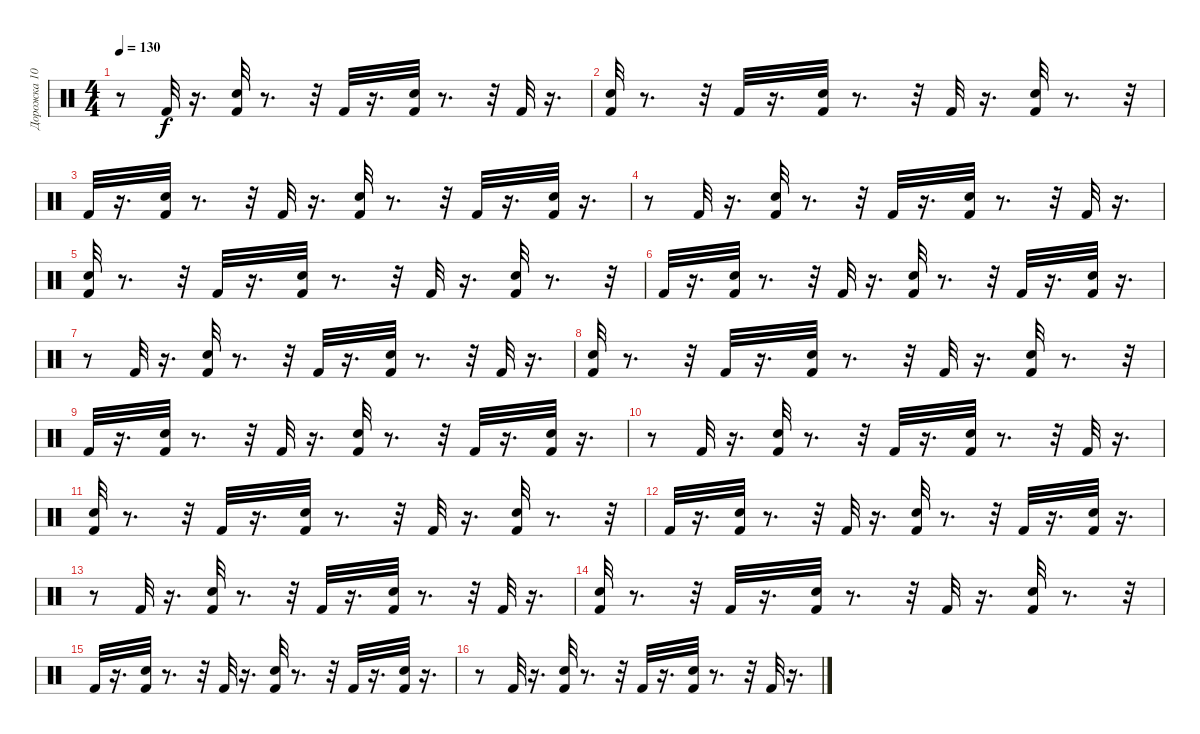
\track ("Дорожка 10" "Дорожка 10") {instrument percussion}
\staff {score}
\articulation defaults
\ts (4 4)
\tempo 130
\clef neutral
\ks c
r.8{dy f} "Kick (hit) 2".32 r.16{d} ("Snare (hit)" "Kick (hit) 2").32 r.8{d} r.32 "Kick (hit) 2".32 r.16{d} ("Snare (hit)" "Kick (hit) 2").32 r.8{d} r.32 "Kick (hit) 2".32 r.16{d} |
("Snare (hit)" "Kick (hit) 2").32 r.8{d} r.32 "Kick (hit) 2".32 r.16{d} ("Snare (hit)" "Kick (hit) 2").32 r.8{d} r.32 "Kick (hit) 2".32 r.16{d} ("Snare (hit)" "Kick (hit) 2").32 r.8{d} r.32 |
"Kick (hit) 2".32 r.16{d} ("Snare (hit)" "Kick (hit) 2").32 r.8{d} r.32 "Kick (hit) 2".32 r.16{d} ("Snare (hit)" "Kick (hit) 2").32 r.8{d} r.32 "Kick (hit) 2".32 r.16{d} ("Snare (hit)" "Kick (hit) 2").32 r.16{d} |
r.8 "Kick (hit) 2".32 r.16{d} ("Snare (hit)" "Kick (hit) 2").32 r.8{d} r.32 "Kick (hit) 2".32 r.16{d} ("Snare (hit)" "Kick (hit) 2").32 r.8{d} r.32 "Kick (hit) 2".32 r.16{d} |
("Snare (hit)" "Kick (hit) 2").32 r.8{d} r.32 "Kick (hit) 2".32 r.16{d} ("Snare (hit)" "Kick (hit) 2").32 r.8{d} r.32 "Kick (hit) 2".32 r.16{d} ("Snare (hit)" "Kick (hit) 2").32 r.8{d} r.32 |
"Kick (hit) 2".32 r.16{d} ("Snare (hit)" "Kick (hit) 2").32 r.8{d} r.32 "Kick (hit) 2".32 r.16{d} ("Snare (hit)" "Kick (hit) 2").32 r.8{d} r.32 "Kick (hit) 2".32 r.16{d} ("Snare (hit)" "Kick (hit) 2").32 r.16{d} |
r.8 "Kick (hit) 2".32 r.16{d} ("Snare (hit)" "Kick (hit) 2").32 r.8{d} r.32 "Kick (hit) 2".32 r.16{d} ("Snare (hit)" "Kick (hit) 2").32 r.8{d} r.32 "Kick (hit) 2".32 r.16{d} |
("Snare (hit)" "Kick (hit) 2").32 r.8{d} r.32 "Kick (hit) 2".32 r.16{d} ("Snare (hit)" "Kick (hit) 2").32 r.8{d} r.32 "Kick (hit) 2".32 r.16{d} ("Snare (hit)" "Kick (hit) 2").32 r.8{d} r.32 |
"Kick (hit) 2".32 r.16{d} ("Snare (hit)" "Kick (hit) 2").32 r.8{d} r.32 "Kick (hit) 2".32 r.16{d} ("Snare (hit)" "Kick (hit) 2").32 r.8{d} r.32 "Kick (hit) 2".32 r.16{d} ("Snare (hit)" "Kick (hit) 2").32 r.16{d} |
r.8 "Kick (hit) 2".32 r.16{d} ("Snare (hit)" "Kick (hit) 2").32 r.8{d} r.32 "Kick (hit) 2".32 r.16{d} ("Snare (hit)" "Kick (hit) 2").32 r.8{d} r.32 "Kick (hit) 2".32 r.16{d} |
("Snare (hit)" "Kick (hit) 2").32 r.8{d} r.32 "Kick (hit) 2".32 r.16{d} ("Snare (hit)" "Kick (hit) 2").32 r.8{d} r.32 "Kick (hit) 2".32 r.16{d} ("Snare (hit)" "Kick (hit) 2").32 r.8{d} r.32 |
"Kick (hit) 2".32 r.16{d} ("Snare (hit)" "Kick (hit) 2").32 r.8{d} r.32 "Kick (hit) 2".32 r.16{d} ("Snare (hit)" "Kick (hit) 2").32 r.8{d} r.32 "Kick (hit) 2".32 r.16{d} ("Snare (hit)" "Kick (hit) 2").32 r.16{d} |
r.8 "Kick (hit) 2".32 r.16{d} ("Snare (hit)" "Kick (hit) 2").32 r.8{d} r.32 "Kick (hit) 2".32 r.16{d} ("Snare (hit)" "Kick (hit) 2").32 r.8{d} r.32 "Kick (hit) 2".32 r.16{d} |
("Snare (hit)" "Kick (hit) 2").32 r.8{d} r.32 "Kick (hit) 2".32 r.16{d} ("Snare (hit)" "Kick (hit) 2").32 r.8{d} r.32 "Kick (hit) 2".32 r.16{d} ("Snare (hit)" "Kick (hit) 2").32 r.8{d} r.32 |
"Kick (hit) 2".32 r.16{d} ("Snare (hit)" "Kick (hit) 2").32 r.8{d} r.32 "Kick (hit) 2".32 r.16{d} ("Snare (hit)" "Kick (hit) 2").32 r.8{d} r.32 "Kick (hit) 2".32 r.16{d} ("Snare (hit)" "Kick (hit) 2").32 r.16{d} |
r.8 "Kick (hit) 2".32 r.16{d} ("Snare (hit)" "Kick (hit) 2").32 r.8{d} r.32 "Kick (hit) 2".32 r.16{d} ("Snare (hit)" "Kick (hit) 2").32 r.8{d} r.32 "Kick (hit) 2".32 r.16{d}
